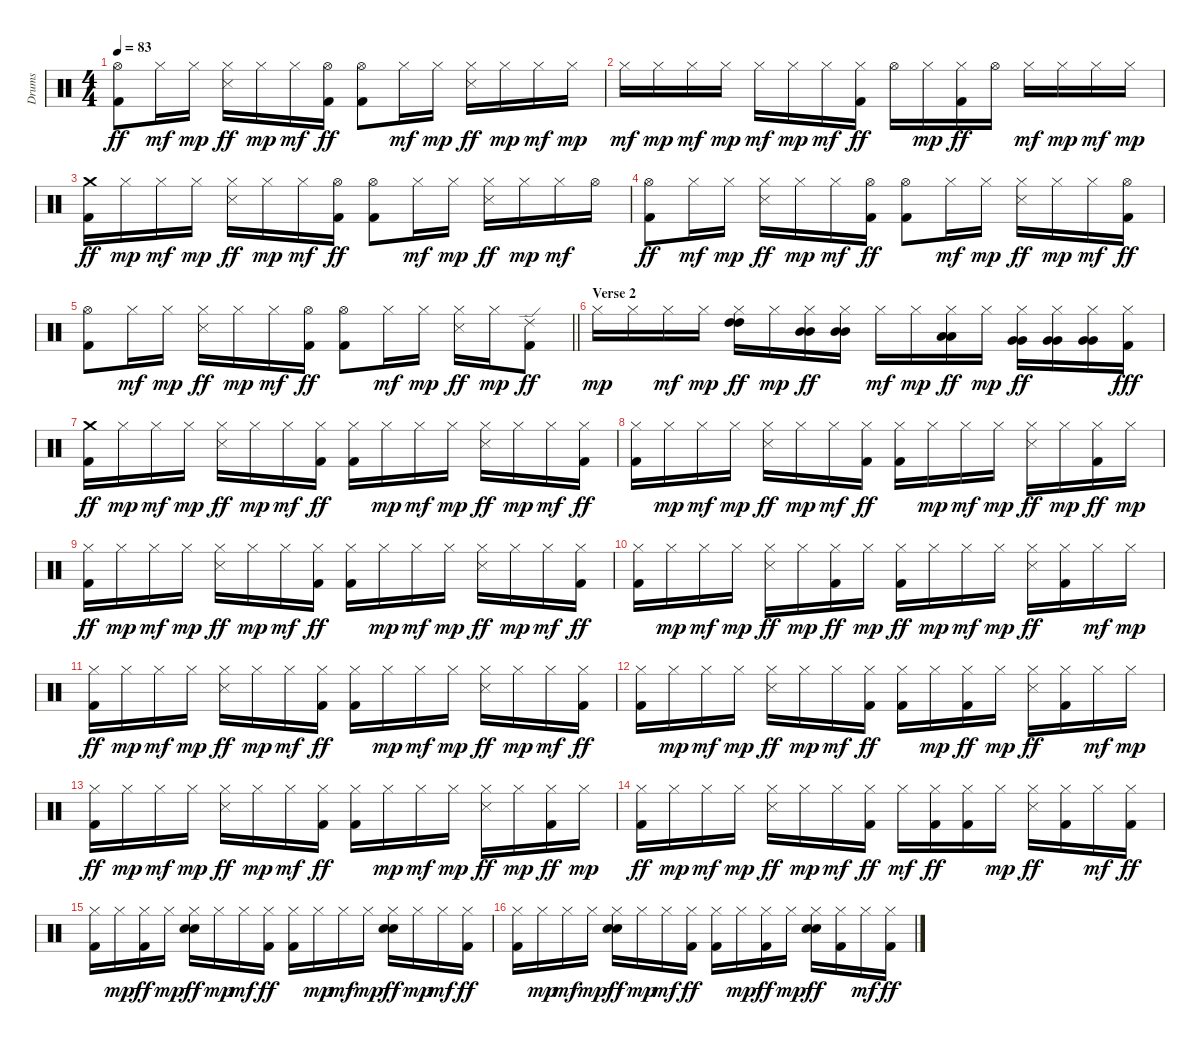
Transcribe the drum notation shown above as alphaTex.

\track ("Drums" "Drums") {instrument percussion}
\staff {score}
\articulation defaults
\ts (4 4)
\tempo 83
\clef neutral
\ks c
("Hi-Hat (open)" "Kick (hit) 2").8{dy ff} "Hi-Hat (closed)".16{dy mf} "Hi-Hat (closed)".16{dy mp} ("Hi-Hat (closed)" "Snare (side stick) 3").16{dy ff} "Hi-Hat (closed)".16{dy mp} "Hi-Hat (closed)".16{dy mf} ("Hi-Hat (open)" "Kick (hit) 2").16{dy ff} ("Hi-Hat (open)" "Kick (hit) 2").8 "Hi-Hat (closed)".16{dy mf} "Hi-Hat (closed)".16{dy mp} ("Hi-Hat (closed)" "Snare (side stick) 3").16{dy ff} "Hi-Hat (closed)".16{dy mp} "Hi-Hat (closed)".16{dy mf} "Hi-Hat (closed)".16{dy mp} |
"Hi-Hat (closed)".16{dy mf} "Hi-Hat (closed)".16{dy mp} "Hi-Hat (closed)".16{dy mf} "Hi-Hat (closed)".16{dy mp} "Hi-Hat (closed)".16{dy mf} "Hi-Hat (closed)".16{dy mp} "Hi-Hat (closed)".16{dy mf} ("Hi-Hat (closed)" "Kick (hit) 2").16{dy ff} "Hi-Hat (open)".16 "Hi-Hat (closed)".16{dy mp} ("Hi-Hat (closed)" "Kick (hit) 2").16{dy ff} "Hi-Hat (open)".16 "Hi-Hat (closed)".16{dy mf} "Hi-Hat (closed)".16{dy mp} "Hi-Hat (closed)".16{dy mf} "Hi-Hat (closed)".16{dy mp} |
("Crash medium (hit)" "Kick (hit) 2").16{dy ff} "Hi-Hat (closed)".16{dy mp} "Hi-Hat (closed)".16{dy mf} "Hi-Hat (closed)".16{dy mp} ("Hi-Hat (closed)" "Snare (side stick) 3").16{dy ff} "Hi-Hat (closed)".16{dy mp} "Hi-Hat (closed)".16{dy mf} ("Hi-Hat (open)" "Kick (hit) 2").16{dy ff} ("Hi-Hat (open)" "Kick (hit) 2").8 "Hi-Hat (closed)".16{dy mf} "Hi-Hat (closed)".16{dy mp} ("Hi-Hat (closed)" "Snare (side stick) 3").16{dy ff} "Hi-Hat (closed)".16{dy mp} "Hi-Hat (closed)".16{dy mf} "Hi-Hat (open)".16 |
("Hi-Hat (open)" "Kick (hit) 2").8{dy ff} "Hi-Hat (closed)".16{dy mf} "Hi-Hat (closed)".16{dy mp} ("Hi-Hat (closed)" "Snare (side stick) 3").16{dy ff} "Hi-Hat (closed)".16{dy mp} "Hi-Hat (closed)".16{dy mf} ("Hi-Hat (open)" "Kick (hit) 2").16{dy ff} ("Hi-Hat (open)" "Kick (hit) 2").8 "Hi-Hat (closed)".16{dy mf} "Hi-Hat (closed)".16{dy mp} ("Hi-Hat (closed)" "Snare (side stick) 3").16{dy ff} "Hi-Hat (closed)".16{dy mp} "Hi-Hat (closed)".16{dy mf} ("Hi-Hat (open)" "Kick (hit) 2").16{dy ff} |
\barLineRight lightlight
("Hi-Hat (open)" "Kick (hit) 2").8 "Hi-Hat (closed)".16{dy mf} "Hi-Hat (closed)".16{dy mp} ("Hi-Hat (closed)" "Snare (side stick) 3").16{dy ff} "Hi-Hat (closed)".16{dy mp} "Hi-Hat (closed)".16{dy mf} ("Hi-Hat (open)" "Kick (hit) 2").16{dy ff} ("Hi-Hat (open)" "Kick (hit) 2").8 "Hi-Hat (closed)".16{dy mf} "Hi-Hat (closed)".16{dy mp} ("Hi-Hat (closed)" "Snare (side stick) 3").16{dy ff} "Hi-Hat (closed)".16{dy mp} ("Ride (edge) 2" "Kick (hit) 2").8{dy ff} |
\section ("" "Verse 2")
"Hi-Hat (closed)".16{dy mp} "Hi-Hat (closed)".16 "Hi-Hat (closed)".16{dy mf} "Hi-Hat (closed)".16{dy mp} ("Hi-Hat (closed)" "High Tom (hit)" "High Tom (hit)").16{dy ff} "Hi-Hat (closed)".16{dy mp} ("Hi-Hat (closed)" "Mid Tom (hit)" "Mid Tom (hit)").16{dy ff} ("Hi-Hat (closed)" "Mid Tom (hit)" "Mid Tom (hit)").16 "Hi-Hat (closed)".16{dy mf} "Hi-Hat (closed)".16{dy mp} ("Hi-Hat (closed)" "Low Tom (hit)" "Low Tom (hit)").16{dy ff} "Hi-Hat (closed)".16{dy mp} ("Hi-Hat (closed)" "Very Low Tom (hit)" "Very Low Tom (hit)").16{dy ff} ("Hi-Hat (closed)" "Very Low Tom (hit)" "Very Low Tom (hit)").16 ("Hi-Hat (closed)" "Very Low Tom (hit)" "Very Low Tom (hit)").16 ("Hi-Hat (closed)" "Kick (hit) 2").16{dy fff} |
("Crash medium (hit)" "Kick (hit) 2").16{dy ff} "Hi-Hat (closed)".16{dy mp} "Hi-Hat (closed)".16{dy mf} "Hi-Hat (closed)".16{dy mp} ("Hi-Hat (closed)" "Snare (side stick) 3").16{dy ff} "Hi-Hat (closed)".16{dy mp} "Hi-Hat (closed)".16{dy mf} ("Hi-Hat (closed)" "Kick (hit) 2").16{dy ff} ("Hi-Hat (closed)" "Kick (hit) 2").16 "Hi-Hat (closed)".16{dy mp} "Hi-Hat (closed)".16{dy mf} "Hi-Hat (closed)".16{dy mp} ("Hi-Hat (closed)" "Snare (side stick) 3").16{dy ff} "Hi-Hat (closed)".16{dy mp} "Hi-Hat (closed)".16{dy mf} ("Hi-Hat (closed)" "Kick (hit) 2").16{dy ff} |
("Hi-Hat (closed)" "Kick (hit) 2").16 "Hi-Hat (closed)".16{dy mp} "Hi-Hat (closed)".16{dy mf} "Hi-Hat (closed)".16{dy mp} ("Hi-Hat (closed)" "Snare (side stick) 3").16{dy ff} "Hi-Hat (closed)".16{dy mp} "Hi-Hat (closed)".16{dy mf} ("Hi-Hat (closed)" "Kick (hit) 2").16{dy ff} ("Hi-Hat (closed)" "Kick (hit) 2").16 "Hi-Hat (closed)".16{dy mp} "Hi-Hat (closed)".16{dy mf} "Hi-Hat (closed)".16{dy mp} ("Hi-Hat (closed)" "Snare (side stick) 3").16{dy ff} "Hi-Hat (closed)".16{dy mp} ("Hi-Hat (closed)" "Kick (hit) 2").16{dy ff} "Hi-Hat (closed)".16{dy mp} |
("Hi-Hat (closed)" "Kick (hit) 2").16{dy ff} "Hi-Hat (closed)".16{dy mp} "Hi-Hat (closed)".16{dy mf} "Hi-Hat (closed)".16{dy mp} ("Hi-Hat (closed)" "Snare (side stick) 3").16{dy ff} "Hi-Hat (closed)".16{dy mp} "Hi-Hat (closed)".16{dy mf} ("Hi-Hat (closed)" "Kick (hit) 2").16{dy ff} ("Hi-Hat (closed)" "Kick (hit) 2").16 "Hi-Hat (closed)".16{dy mp} "Hi-Hat (closed)".16{dy mf} "Hi-Hat (closed)".16{dy mp} ("Hi-Hat (closed)" "Snare (side stick) 3").16{dy ff} "Hi-Hat (closed)".16{dy mp} "Hi-Hat (closed)".16{dy mf} ("Hi-Hat (closed)" "Kick (hit) 2").16{dy ff} |
("Hi-Hat (closed)" "Kick (hit) 2").16 "Hi-Hat (closed)".16{dy mp} "Hi-Hat (closed)".16{dy mf} "Hi-Hat (closed)".16{dy mp} ("Hi-Hat (closed)" "Snare (side stick) 3").16{dy ff} "Hi-Hat (closed)".16{dy mp} ("Hi-Hat (closed)" "Kick (hit) 2").16{dy ff} "Hi-Hat (closed)".16{dy mp} ("Hi-Hat (closed)" "Kick (hit) 2").16{dy ff} "Hi-Hat (closed)".16{dy mp} "Hi-Hat (closed)".16{dy mf} "Hi-Hat (closed)".16{dy mp} ("Hi-Hat (closed)" "Snare (side stick) 3").16{dy ff} ("Hi-Hat (closed)" "Kick (hit) 2").16 "Hi-Hat (closed)".16{dy mf} "Hi-Hat (closed)".16{dy mp} |
("Hi-Hat (closed)" "Kick (hit) 2").16{dy ff} "Hi-Hat (closed)".16{dy mp} "Hi-Hat (closed)".16{dy mf} "Hi-Hat (closed)".16{dy mp} ("Hi-Hat (closed)" "Snare (side stick) 3").16{dy ff} "Hi-Hat (closed)".16{dy mp} "Hi-Hat (closed)".16{dy mf} ("Hi-Hat (closed)" "Kick (hit) 2").16{dy ff} ("Hi-Hat (closed)" "Kick (hit) 2").16 "Hi-Hat (closed)".16{dy mp} "Hi-Hat (closed)".16{dy mf} "Hi-Hat (closed)".16{dy mp} ("Hi-Hat (closed)" "Snare (side stick) 3").16{dy ff} "Hi-Hat (closed)".16{dy mp} "Hi-Hat (closed)".16{dy mf} ("Hi-Hat (closed)" "Kick (hit) 2").16{dy ff} |
("Hi-Hat (closed)" "Kick (hit) 2").16 "Hi-Hat (closed)".16{dy mp} "Hi-Hat (closed)".16{dy mf} "Hi-Hat (closed)".16{dy mp} ("Hi-Hat (closed)" "Snare (side stick) 3").16{dy ff} "Hi-Hat (closed)".16{dy mp} "Hi-Hat (closed)".16{dy mf} ("Hi-Hat (closed)" "Kick (hit) 2").16{dy ff} ("Hi-Hat (closed)" "Kick (hit) 2").16 "Hi-Hat (closed)".16{dy mp} ("Hi-Hat (closed)" "Kick (hit) 2").16{dy ff} "Hi-Hat (closed)".16{dy mp} ("Hi-Hat (closed)" "Snare (side stick) 3").16{dy ff} ("Hi-Hat (closed)" "Kick (hit) 2").16 "Hi-Hat (closed)".16{dy mf} "Hi-Hat (closed)".16{dy mp} |
("Hi-Hat (closed)" "Kick (hit) 2").16{dy ff} "Hi-Hat (closed)".16{dy mp} "Hi-Hat (closed)".16{dy mf} "Hi-Hat (closed)".16{dy mp} ("Hi-Hat (closed)" "Snare (side stick) 3").16{dy ff} "Hi-Hat (closed)".16{dy mp} "Hi-Hat (closed)".16{dy mf} ("Hi-Hat (closed)" "Kick (hit) 2").16{dy ff} ("Hi-Hat (closed)" "Kick (hit) 2").16 "Hi-Hat (closed)".16{dy mp} "Hi-Hat (closed)".16{dy mf} "Hi-Hat (closed)".16{dy mp} ("Hi-Hat (closed)" "Snare (side stick) 3").16{dy ff} "Hi-Hat (closed)".16{dy mp} ("Hi-Hat (closed)" "Kick (hit) 2").16{dy ff} "Hi-Hat (closed)".16{dy mp} |
("Hi-Hat (closed)" "Kick (hit) 2").16{dy ff} "Hi-Hat (closed)".16{dy mp} "Hi-Hat (closed)".16{dy mf} "Hi-Hat (closed)".16{dy mp} ("Hi-Hat (closed)" "Snare (side stick) 3").16{dy ff} "Hi-Hat (closed)".16{dy mp} "Hi-Hat (closed)".16{dy mf} ("Hi-Hat (closed)" "Kick (hit) 2").16{dy ff} "Hi-Hat (closed)".16{dy mf} ("Hi-Hat (closed)" "Kick (hit) 2").16{dy ff} ("Hi-Hat (closed)" "Kick (hit) 2").16 "Hi-Hat (closed)".16{dy mp} ("Hi-Hat (closed)" "Snare (side stick) 3").16{dy ff} ("Hi-Hat (closed)" "Kick (hit) 2").16 "Hi-Hat (closed)".16{dy mf} ("Hi-Hat (closed)" "Kick (hit) 2").16{dy ff} |
("Hi-Hat (closed)" "Kick (hit) 2").16 "Hi-Hat (closed)".16{dy mp} ("Hi-Hat (closed)" "Kick (hit) 2").16{dy ff} "Hi-Hat (closed)".16{dy mp} ("Hi-Hat (closed)" "Electric Snare (hit)" "Snare (hit) 2").16{dy ff} "Hi-Hat (closed)".16{dy mp} "Hi-Hat (closed)".16{dy mf} ("Hi-Hat (closed)" "Kick (hit) 2").16{dy ff} ("Hi-Hat (closed)" "Kick (hit) 2").16 "Hi-Hat (closed)".16{dy mp} "Hi-Hat (closed)".16{dy mf} "Hi-Hat (closed)".16{dy mp} ("Hi-Hat (closed)" "Electric Snare (hit)" "Snare (hit) 2").16{dy ff} "Hi-Hat (closed)".16{dy mp} "Hi-Hat (closed)".16{dy mf} ("Hi-Hat (closed)" "Kick (hit) 2").16{dy ff} |
("Hi-Hat (closed)" "Kick (hit) 2").16 "Hi-Hat (closed)".16{dy mp} "Hi-Hat (closed)".16{dy mf} "Hi-Hat (closed)".16{dy mp} ("Hi-Hat (closed)" "Electric Snare (hit)" "Snare (hit) 2").16{dy ff} "Hi-Hat (closed)".16{dy mp} "Hi-Hat (closed)".16{dy mf} ("Hi-Hat (closed)" "Kick (hit) 2").16{dy ff} ("Hi-Hat (closed)" "Kick (hit) 2").16 "Hi-Hat (closed)".16{dy mp} ("Hi-Hat (closed)" "Kick (hit) 2").16{dy ff} "Hi-Hat (closed)".16{dy mp} ("Hi-Hat (closed)" "Electric Snare (hit)" "Snare (hit) 2").16{dy ff} ("Hi-Hat (closed)" "Kick (hit) 2").16 "Hi-Hat (closed)".16{dy mf} ("Hi-Hat (closed)" "Kick (hit) 2").16{dy ff}
